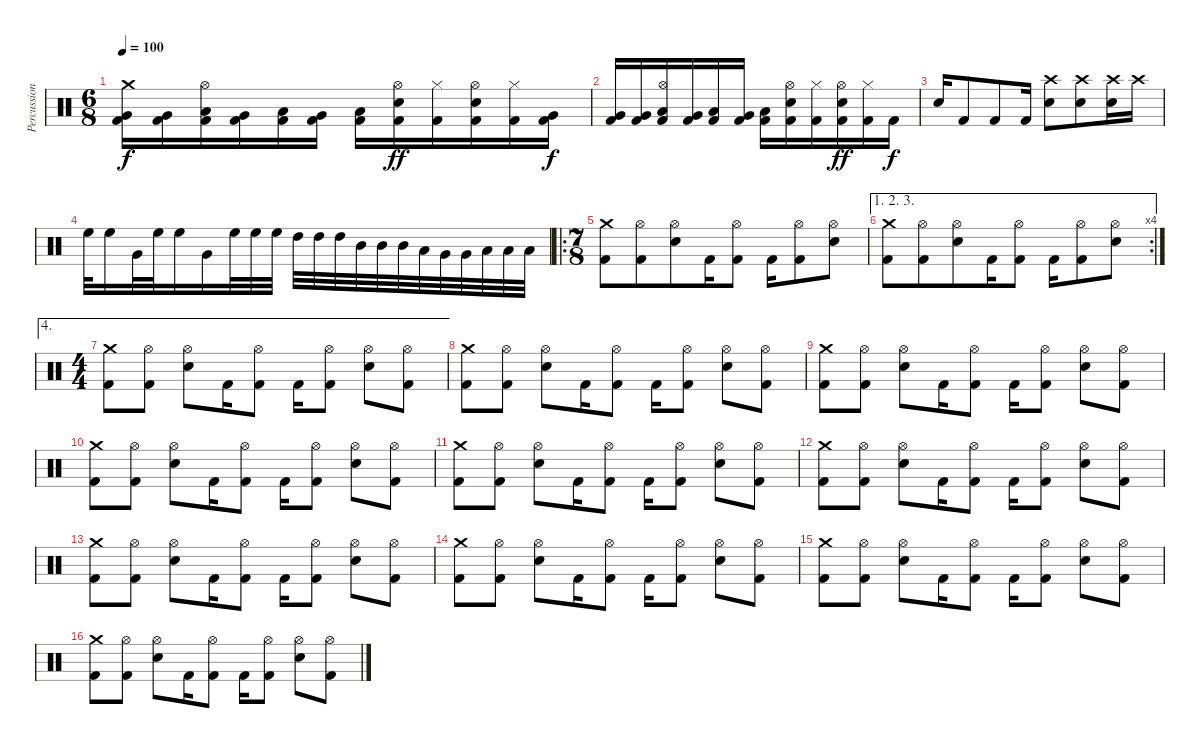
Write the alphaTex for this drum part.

\track ("Percussion" "Percussion") {instrument percussion}
\staff {score}
\articulation defaults
\ts (6 8)
\tempo 100
\clef neutral
\ks c
("Crash medium (hit)" "Very Low Tom (hit)" "Kick (hit) 2").16{dy f} ("Very Low Tom (hit)" "Kick (hit) 2").16 ("Hi-Hat (open)" "Low Tom (hit)" "Kick (hit) 2").16 ("Very Low Tom (hit)" "Kick (hit) 2").16 ("Low Tom (hit)" "Kick (hit) 2").16 ("Very Low Tom (hit)" "Kick (hit) 2").16 ("Low Tom (hit)" "Kick (hit) 2").16 ("Hi-Hat (open)" "Electric Snare (hit)" "Kick (hit) 2").16{dy ff} ("Hi-Hat (closed)" "Kick (hit) 2").16 ("Hi-Hat (open)" "Electric Snare (hit)" "Kick (hit) 2").16 ("Hi-Hat (closed)" "Kick (hit) 2").16 ("Very Low Tom (hit)" "Kick (hit) 2").16{dy f} |
("Very Low Tom (hit)" "Kick (hit) 2").16 ("Very Low Tom (hit)" "Kick (hit) 2").16 ("Hi-Hat (open)" "Low Tom (hit)" "Kick (hit) 2").16 ("Very Low Tom (hit)" "Kick (hit) 2").16 ("Low Tom (hit)" "Kick (hit) 2").16 ("Very Low Tom (hit)" "Kick (hit) 2").16 ("Low Tom (hit)" "Kick (hit) 2").16 ("Hi-Hat (open)" "Electric Snare (hit)" "Kick (hit) 2").16 ("Hi-Hat (closed)" "Kick (hit) 2").16 ("Hi-Hat (open)" "Electric Snare (hit)" "Kick (hit) 2").16{dy ff} ("Hi-Hat (closed)" "Kick (hit) 2").16 "Kick (hit) 2".16{dy f} |
"Electric Snare (hit)".16 "Kick (hit) 2".8 "Kick (hit) 2".8 "Kick (hit) 2".16 ("Crash high (hit)" "Electric Snare (hit)").8 ("Crash high (hit)" "Electric Snare (hit)").8 ("Crash high (hit)" "Electric Snare (hit)").16 "Crash high (hit)".16 |
"High Floor Tom (hit)".32 "High Floor Tom (hit)".16 "Very Low Tom (hit)".32 "High Floor Tom (hit)".32 "High Floor Tom (hit)".16 "Very Low Tom (hit)".16 "High Floor Tom (hit)".32 "High Floor Tom (hit)".32 "High Floor Tom (hit)".32 "High Tom (hit)".32 "High Tom (hit)".32 "High Tom (hit)".32 "Mid Tom (hit)".32 "Mid Tom (hit)".32 "Mid Tom (hit)".32 "Low Tom (hit)".32 "Very Low Tom (hit)".32 "Very Low Tom (hit)".32 "Low Floor Tom (hit)".32 "Low Floor Tom (hit)".32 "Low Floor Tom (hit)".32 |
\ro
\ts (7 8)
("Crash medium (hit)" "Kick (hit) 2").8 ("Hi-Hat (open)" "Kick (hit) 2").8 ("Hi-Hat (open)" "Electric Snare (hit)").8 "Kick (hit) 2".16 ("Hi-Hat (open)" "Kick (hit) 2").8 "Kick (hit) 2".16 ("Hi-Hat (open)" "Kick (hit) 2").8 ("Hi-Hat (open)" "Electric Snare (hit)").8 |
\ae (1 2 3)
\rc 4
("Crash medium (hit)" "Kick (hit) 2").8 ("Hi-Hat (open)" "Kick (hit) 2").8 ("Hi-Hat (open)" "Electric Snare (hit)").8 "Kick (hit) 2".16 ("Hi-Hat (open)" "Kick (hit) 2").8 "Kick (hit) 2".16 ("Hi-Hat (open)" "Kick (hit) 2").8 ("Hi-Hat (open)" "Electric Snare (hit)").8 |
\ae 4
\ts (4 4)
("Crash medium (hit)" "Kick (hit) 2").8 ("Hi-Hat (open)" "Kick (hit) 2").8 ("Hi-Hat (open)" "Electric Snare (hit)").8 "Kick (hit) 2".16 ("Hi-Hat (open)" "Kick (hit) 2").8 "Kick (hit) 2".16 ("Hi-Hat (open)" "Kick (hit) 2").8 ("Hi-Hat (open)" "Electric Snare (hit)").8 ("Hi-Hat (open)" "Kick (hit) 2").8 |
("Crash medium (hit)" "Kick (hit) 2").8 ("Hi-Hat (open)" "Kick (hit) 2").8 ("Hi-Hat (open)" "Electric Snare (hit)").8 "Kick (hit) 2".16 ("Hi-Hat (open)" "Kick (hit) 2").8 "Kick (hit) 2".16 ("Hi-Hat (open)" "Kick (hit) 2").8 ("Hi-Hat (open)" "Electric Snare (hit)").8 ("Hi-Hat (open)" "Kick (hit) 2").8 |
("Crash medium (hit)" "Kick (hit) 2").8 ("Hi-Hat (open)" "Kick (hit) 2").8 ("Hi-Hat (open)" "Electric Snare (hit)").8 "Kick (hit) 2".16 ("Hi-Hat (open)" "Kick (hit) 2").8 "Kick (hit) 2".16 ("Hi-Hat (open)" "Kick (hit) 2").8 ("Hi-Hat (open)" "Electric Snare (hit)").8 ("Hi-Hat (open)" "Kick (hit) 2").8 |
("Crash medium (hit)" "Kick (hit) 2").8 ("Hi-Hat (open)" "Kick (hit) 2").8 ("Hi-Hat (open)" "Electric Snare (hit)").8 "Kick (hit) 2".16 ("Hi-Hat (open)" "Kick (hit) 2").8 "Kick (hit) 2".16 ("Hi-Hat (open)" "Kick (hit) 2").8 ("Hi-Hat (open)" "Electric Snare (hit)").8 ("Hi-Hat (open)" "Kick (hit) 2").8 |
("Crash medium (hit)" "Kick (hit) 2").8 ("Hi-Hat (open)" "Kick (hit) 2").8 ("Hi-Hat (open)" "Electric Snare (hit)").8 "Kick (hit) 2".16 ("Hi-Hat (open)" "Kick (hit) 2").8 "Kick (hit) 2".16 ("Hi-Hat (open)" "Kick (hit) 2").8 ("Hi-Hat (open)" "Electric Snare (hit)").8 ("Hi-Hat (open)" "Kick (hit) 2").8 |
("Crash medium (hit)" "Kick (hit) 2").8 ("Hi-Hat (open)" "Kick (hit) 2").8 ("Hi-Hat (open)" "Electric Snare (hit)").8 "Kick (hit) 2".16 ("Hi-Hat (open)" "Kick (hit) 2").8 "Kick (hit) 2".16 ("Hi-Hat (open)" "Kick (hit) 2").8 ("Hi-Hat (open)" "Electric Snare (hit)").8 ("Hi-Hat (open)" "Kick (hit) 2").8 |
("Crash medium (hit)" "Kick (hit) 2").8 ("Hi-Hat (open)" "Kick (hit) 2").8 ("Hi-Hat (open)" "Electric Snare (hit)").8 "Kick (hit) 2".16 ("Hi-Hat (open)" "Kick (hit) 2").8 "Kick (hit) 2".16 ("Hi-Hat (open)" "Kick (hit) 2").8 ("Hi-Hat (open)" "Electric Snare (hit)").8 ("Hi-Hat (open)" "Kick (hit) 2").8 |
("Crash medium (hit)" "Kick (hit) 2").8 ("Hi-Hat (open)" "Kick (hit) 2").8 ("Hi-Hat (open)" "Electric Snare (hit)").8 "Kick (hit) 2".16 ("Hi-Hat (open)" "Kick (hit) 2").8 "Kick (hit) 2".16 ("Hi-Hat (open)" "Kick (hit) 2").8 ("Hi-Hat (open)" "Electric Snare (hit)").8 ("Hi-Hat (open)" "Kick (hit) 2").8 |
("Crash medium (hit)" "Kick (hit) 2").8 ("Hi-Hat (open)" "Kick (hit) 2").8 ("Hi-Hat (open)" "Electric Snare (hit)").8 "Kick (hit) 2".16 ("Hi-Hat (open)" "Kick (hit) 2").8 "Kick (hit) 2".16 ("Hi-Hat (open)" "Kick (hit) 2").8 ("Hi-Hat (open)" "Electric Snare (hit)").8 ("Hi-Hat (open)" "Kick (hit) 2").8 |
("Crash medium (hit)" "Kick (hit) 2").8 ("Hi-Hat (open)" "Kick (hit) 2").8 ("Hi-Hat (open)" "Electric Snare (hit)").8 "Kick (hit) 2".16 ("Hi-Hat (open)" "Kick (hit) 2").8 "Kick (hit) 2".16 ("Hi-Hat (open)" "Kick (hit) 2").8 ("Hi-Hat (open)" "Electric Snare (hit)").8 ("Hi-Hat (open)" "Kick (hit) 2").8
